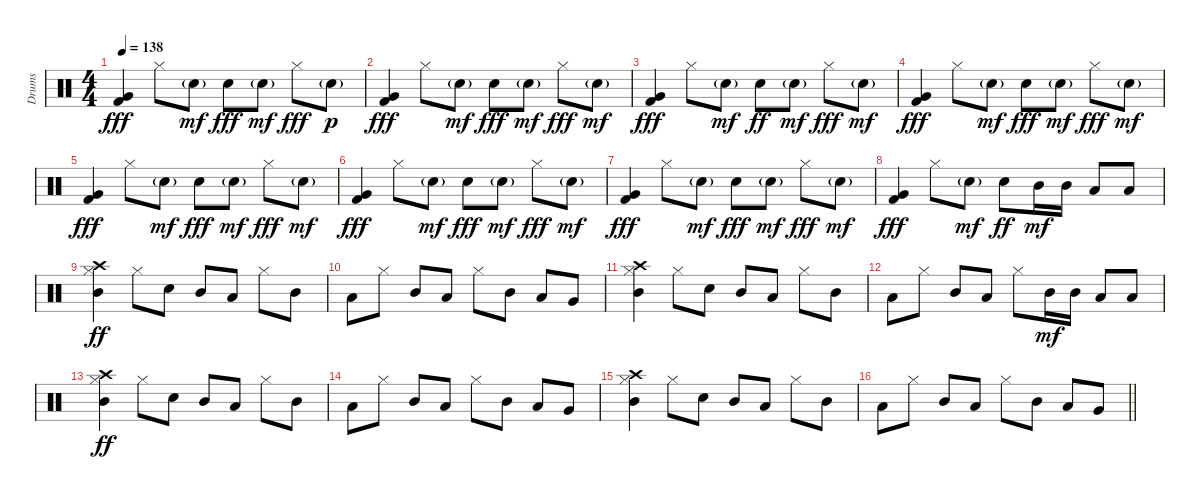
\track ("Drums" "Drums") {instrument percussion}
\staff {score}
\articulation defaults
\ts (4 4)
\tempo 138
\clef neutral
\ks c
("Very Low Tom (hit)" "Kick (hit) 2").4{dy fff} "Hi-Hat (closed)".8 "Electric Snare (hit)"{g}.8{dy mf} "Electric Snare (hit)".8{dy fff} "Electric Snare (hit)"{g}.8{dy mf} "Hi-Hat (closed)".8{dy fff} "Electric Snare (hit)"{g}.8{dy p} |
("Very Low Tom (hit)" "Kick (hit) 2").4{dy fff} "Hi-Hat (closed)".8 "Electric Snare (hit)"{g}.8{dy mf} "Electric Snare (hit)".8{dy fff} "Electric Snare (hit)"{g}.8{dy mf} "Hi-Hat (closed)".8{dy fff} "Electric Snare (hit)"{g}.8{dy mf} |
("Very Low Tom (hit)" "Kick (hit) 2").4{dy fff} "Hi-Hat (closed)".8 "Electric Snare (hit)"{g}.8{dy mf} "Electric Snare (hit)".8{dy ff} "Electric Snare (hit)"{g}.8{dy mf} "Hi-Hat (closed)".8{dy fff} "Electric Snare (hit)"{g}.8{dy mf} |
("Very Low Tom (hit)" "Kick (hit) 2").4{dy fff} "Hi-Hat (closed)".8 "Electric Snare (hit)"{g}.8{dy mf} "Electric Snare (hit)".8{dy fff} "Electric Snare (hit)"{g}.8{dy mf} "Hi-Hat (closed)".8{dy fff} "Electric Snare (hit)"{g}.8{dy mf} |
("Very Low Tom (hit)" "Kick (hit) 2").4{dy fff} "Hi-Hat (closed)".8 "Electric Snare (hit)"{g}.8{dy mf} "Electric Snare (hit)".8{dy fff} "Electric Snare (hit)"{g}.8{dy mf} "Hi-Hat (closed)".8{dy fff} "Electric Snare (hit)"{g}.8{dy mf} |
("Very Low Tom (hit)" "Kick (hit) 2").4{dy fff} "Hi-Hat (closed)".8 "Electric Snare (hit)"{g}.8{dy mf} "Electric Snare (hit)".8{dy fff} "Electric Snare (hit)"{g}.8{dy mf} "Hi-Hat (closed)".8{dy fff} "Electric Snare (hit)"{g}.8{dy mf} |
("Very Low Tom (hit)" "Kick (hit) 2").4{dy fff} "Hi-Hat (closed)".8 "Electric Snare (hit)"{g}.8{dy mf} "Electric Snare (hit)".8{dy fff} "Electric Snare (hit)"{g}.8{dy mf} "Hi-Hat (closed)".8{dy fff} "Electric Snare (hit)"{g}.8{dy mf} |
("Very Low Tom (hit)" "Kick (hit) 2").4{dy fff} "Hi-Hat (closed)".8 "Electric Snare (hit)"{g}.8{dy mf} "Electric Snare (hit)".8{dy ff} "Mid Tom (hit)".16{dy mf} "Mid Tom (hit)".16 "Low Tom (hit)".8 "Low Tom (hit)".8 |
("Crash high (hit)" "Hi-Hat (closed)" "Mid Tom (hit)").4{dy ff} "Hi-Hat (closed)".8 "Electric Snare (hit)".8 "Mid Tom (hit)".8 "Low Tom (hit)".8 "Hi-Hat (closed)".8 "Mid Tom (hit)".8 |
"Low Tom (hit)".8 "Hi-Hat (closed)".8 "Mid Tom (hit)".8 "Low Tom (hit)".8 "Hi-Hat (closed)".8 "Mid Tom (hit)".8 "Low Tom (hit)".8 "Very Low Tom (hit)".8 |
("Crash high (hit)" "Hi-Hat (closed)" "Mid Tom (hit)").4 "Hi-Hat (closed)".8 "Electric Snare (hit)".8 "Mid Tom (hit)".8 "Low Tom (hit)".8 "Hi-Hat (closed)".8 "Mid Tom (hit)".8 |
"Low Tom (hit)".8 "Hi-Hat (closed)".8 "Mid Tom (hit)".8 "Low Tom (hit)".8 "Hi-Hat (closed)".8 "Mid Tom (hit)".16{dy mf} "Mid Tom (hit)".16 "Low Tom (hit)".8 "Low Tom (hit)".8 |
("Crash high (hit)" "Hi-Hat (closed)" "Mid Tom (hit)").4{dy ff} "Hi-Hat (closed)".8 "Electric Snare (hit)".8 "Mid Tom (hit)".8 "Low Tom (hit)".8 "Hi-Hat (closed)".8 "Mid Tom (hit)".8 |
"Low Tom (hit)".8 "Hi-Hat (closed)".8 "Mid Tom (hit)".8 "Low Tom (hit)".8 "Hi-Hat (closed)".8 "Mid Tom (hit)".8 "Low Tom (hit)".8 "Very Low Tom (hit)".8 |
("Crash high (hit)" "Hi-Hat (closed)" "Mid Tom (hit)").4 "Hi-Hat (closed)".8 "Electric Snare (hit)".8 "Mid Tom (hit)".8 "Low Tom (hit)".8 "Hi-Hat (closed)".8 "Mid Tom (hit)".8 |
\barLineRight lightlight "Low Tom (hit)".8 "Hi-Hat (closed)".8 "Mid Tom (hit)".8 "Low Tom (hit)".8 "Hi-Hat (closed)".8 "Mid Tom (hit)".8 "Low Tom (hit)".8 "Very Low Tom (hit)".8
